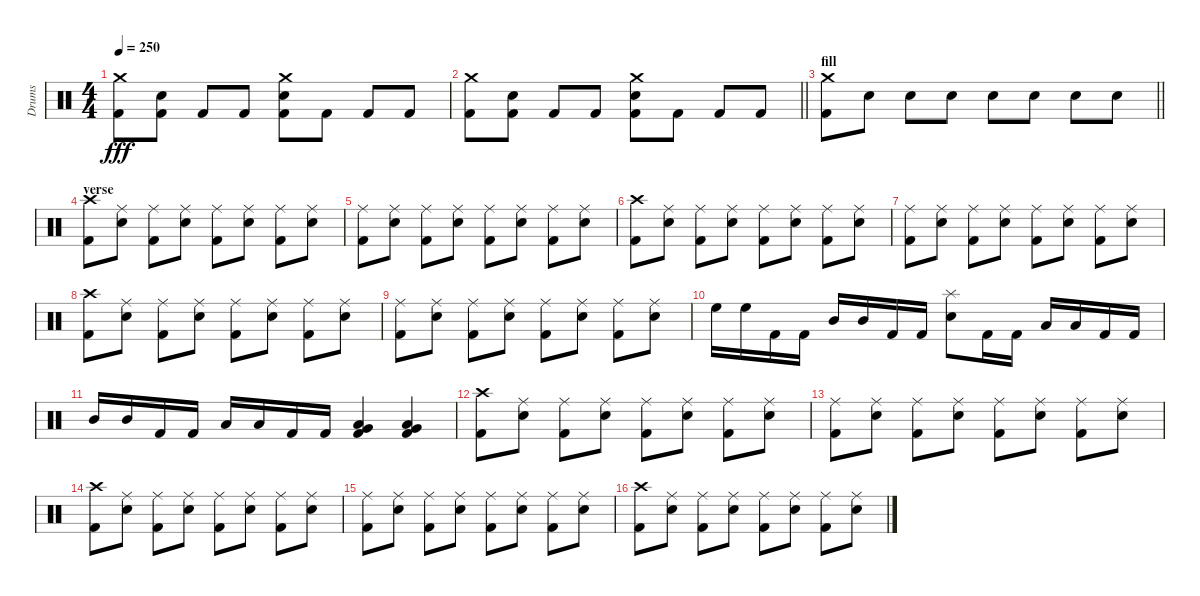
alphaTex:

\track ("Drums" "Drums") {solo instrument percussion}
\staff {score}
\articulation defaults
\ts (4 4)
\tempo 250
\clef neutral
\ks c
("Crash medium (hit)" "Kick (hit) 2").8{dy fff} ("Snare (hit) 2" "Kick (hit) 2").8 "Kick (hit) 2".8 "Kick (hit) 2".8 ("Crash medium (hit)" "Snare (hit) 2" "Kick (hit) 2").8 "Kick (hit) 2".8 "Kick (hit) 2".8 "Kick (hit) 2".8 |
\barLineRight lightlight
("Crash medium (hit)" "Kick (hit) 2").8 ("Snare (hit) 2" "Kick (hit) 2").8 "Kick (hit) 2".8 "Kick (hit) 2".8 ("Crash medium (hit)" "Snare (hit) 2" "Kick (hit) 2").8 "Kick (hit) 2".8 "Kick (hit) 2".8 "Kick (hit) 2".8 |
\section ("" "fill")
\barLineRight lightlight
("Crash medium (hit)" "Kick (hit) 2").8 "Snare (hit) 2".8 "Snare (hit) 2".8 "Snare (hit) 2".8 "Snare (hit) 2".8 "Snare (hit) 2".8 "Snare (hit) 2".8 "Snare (hit) 2".8 |
\section ("" "verse")
("Crash high (hit)" "Kick (hit) 2").8 ("Ride (middle)" "Snare (hit) 2").8 ("Ride (middle)" "Kick (hit) 2").8 ("Ride (middle)" "Snare (hit) 2").8 ("Ride (middle)" "Kick (hit) 2").8 ("Ride (middle)" "Snare (hit) 2").8 ("Ride (middle)" "Kick (hit) 2").8 ("Ride (middle)" "Snare (hit) 2").8 |
("Ride (middle)" "Kick (hit) 2").8 ("Ride (middle)" "Snare (hit) 2").8 ("Ride (middle)" "Kick (hit) 2").8 ("Ride (middle)" "Snare (hit) 2").8 ("Ride (middle)" "Kick (hit) 2").8 ("Ride (middle)" "Snare (hit) 2").8 ("Ride (middle)" "Kick (hit) 2").8 ("Ride (middle)" "Snare (hit) 2").8 |
("Crash high (hit)" "Kick (hit) 2").8 ("Ride (middle)" "Snare (hit) 2").8 ("Ride (middle)" "Kick (hit) 2").8 ("Ride (middle)" "Snare (hit) 2").8 ("Ride (middle)" "Kick (hit) 2").8 ("Ride (middle)" "Snare (hit) 2").8 ("Ride (middle)" "Kick (hit) 2").8 ("Ride (middle)" "Snare (hit) 2").8 |
("Ride (middle)" "Kick (hit) 2").8 ("Ride (middle)" "Snare (hit) 2").8 ("Ride (middle)" "Kick (hit) 2").8 ("Ride (middle)" "Snare (hit) 2").8 ("Ride (middle)" "Kick (hit) 2").8 ("Ride (middle)" "Snare (hit) 2").8 ("Ride (middle)" "Kick (hit) 2").8 ("Ride (middle)" "Snare (hit) 2").8 |
("Crash high (hit)" "Kick (hit) 2").8 ("Ride (middle)" "Snare (hit) 2").8 ("Ride (middle)" "Kick (hit) 2").8 ("Ride (middle)" "Snare (hit) 2").8 ("Ride (middle)" "Kick (hit) 2").8 ("Ride (middle)" "Snare (hit) 2").8 ("Ride (middle)" "Kick (hit) 2").8 ("Ride (middle)" "Snare (hit) 2").8 |
("Ride (middle)" "Kick (hit) 2").8 ("Ride (middle)" "Snare (hit) 2").8 ("Ride (middle)" "Kick (hit) 2").8 ("Ride (middle)" "Snare (hit) 2").8 ("Ride (middle)" "Kick (hit) 2").8 ("Ride (middle)" "Snare (hit) 2").8 ("Ride (middle)" "Kick (hit) 2").8 ("Ride (middle)" "Snare (hit) 2").8 |
"High Floor Tom (hit)".16 "High Floor Tom (hit)".16 "Kick (hit) 2".16 "Kick (hit) 2".16 "Mid Tom (hit)".16 "Mid Tom (hit)".16 "Kick (hit) 2".16 "Kick (hit) 2".16 ("Splash (hit)" "Snare (hit) 2").8 "Kick (hit) 2".16 "Kick (hit) 2".16 "Low Tom (hit)".16 "Low Tom (hit)".16 "Kick (hit) 2".16 "Kick (hit) 2".16 |
"Mid Tom (hit)".16 "Mid Tom (hit)".16 "Kick (hit) 2".16 "Kick (hit) 2".16 "Low Tom (hit)".16 "Low Tom (hit)".16 "Kick (hit) 2".16 "Kick (hit) 2".16 ("Very Low Tom (hit)" "Low Floor Tom (hit)" "Kick (hit) 2").4 ("Very Low Tom (hit)" "Low Floor Tom (hit)" "Kick (hit) 2").4 |
("Crash high (hit)" "Kick (hit) 2").8 ("Ride (middle)" "Snare (hit) 2").8 ("Ride (middle)" "Kick (hit) 2").8 ("Ride (middle)" "Snare (hit) 2").8 ("Ride (middle)" "Kick (hit) 2").8 ("Ride (middle)" "Snare (hit) 2").8 ("Ride (middle)" "Kick (hit) 2").8 ("Ride (middle)" "Snare (hit) 2").8 |
("Ride (middle)" "Kick (hit) 2").8 ("Ride (middle)" "Snare (hit) 2").8 ("Ride (middle)" "Kick (hit) 2").8 ("Ride (middle)" "Snare (hit) 2").8 ("Ride (middle)" "Kick (hit) 2").8 ("Ride (middle)" "Snare (hit) 2").8 ("Ride (middle)" "Kick (hit) 2").8 ("Ride (middle)" "Snare (hit) 2").8 |
("Crash high (hit)" "Kick (hit) 2").8 ("Ride (middle)" "Snare (hit) 2").8 ("Ride (middle)" "Kick (hit) 2").8 ("Ride (middle)" "Snare (hit) 2").8 ("Ride (middle)" "Kick (hit) 2").8 ("Ride (middle)" "Snare (hit) 2").8 ("Ride (middle)" "Kick (hit) 2").8 ("Ride (middle)" "Snare (hit) 2").8 |
("Ride (middle)" "Kick (hit) 2").8 ("Ride (middle)" "Snare (hit) 2").8 ("Ride (middle)" "Kick (hit) 2").8 ("Ride (middle)" "Snare (hit) 2").8 ("Ride (middle)" "Kick (hit) 2").8 ("Ride (middle)" "Snare (hit) 2").8 ("Ride (middle)" "Kick (hit) 2").8 ("Ride (middle)" "Snare (hit) 2").8 |
("Crash high (hit)" "Kick (hit) 2").8 ("Ride (middle)" "Snare (hit) 2").8 ("Ride (middle)" "Kick (hit) 2").8 ("Ride (middle)" "Snare (hit) 2").8 ("Ride (middle)" "Kick (hit) 2").8 ("Ride (middle)" "Snare (hit) 2").8 ("Ride (middle)" "Kick (hit) 2").8 ("Ride (middle)" "Snare (hit) 2").8
